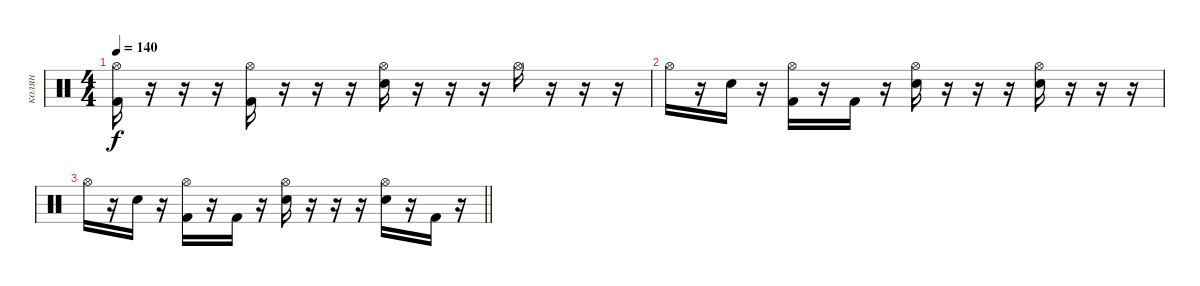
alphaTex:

\track ("колян" "колян") {instrument percussion}
\staff {score}
\articulation defaults
\ts (4 4)
\tempo 140
\clef neutral
\ks c
("Kick (hit) 2" "Hi-Hat (open)").16{dy f} r.16 r.16 r.16 ("Kick (hit) 2" "Hi-Hat (open)").16 r.16 r.16 r.16 ("Snare (hit) 2" "Hi-Hat (open)").16 r.16 r.16 r.16 "Hi-Hat (open)".16 r.16 r.16 r.16 |
"Hi-Hat (open)".16 r.16 "Snare (hit) 2".16 r.16 ("Kick (hit) 2" "Hi-Hat (open)").16 r.16 "Kick (hit) 2".16 r.16 ("Snare (hit) 2" "Hi-Hat (open)").16 r.16 r.16 r.16 ("Snare (hit) 2" "Hi-Hat (open)").16 r.16 r.16 r.16 |
\barLineRight lightlight "Hi-Hat (open)".16
r.16 "Snare (hit) 2".16 r.16 ("Kick (hit) 2" "Hi-Hat (open)").16 r.16 "Kick (hit) 2".16 r.16 ("Snare (hit) 2" "Hi-Hat (open)").16 r.16 r.16 r.16 ("Snare (hit) 2" "Hi-Hat (open)").16 r.16 "Kick (hit) 2".16 r.16
